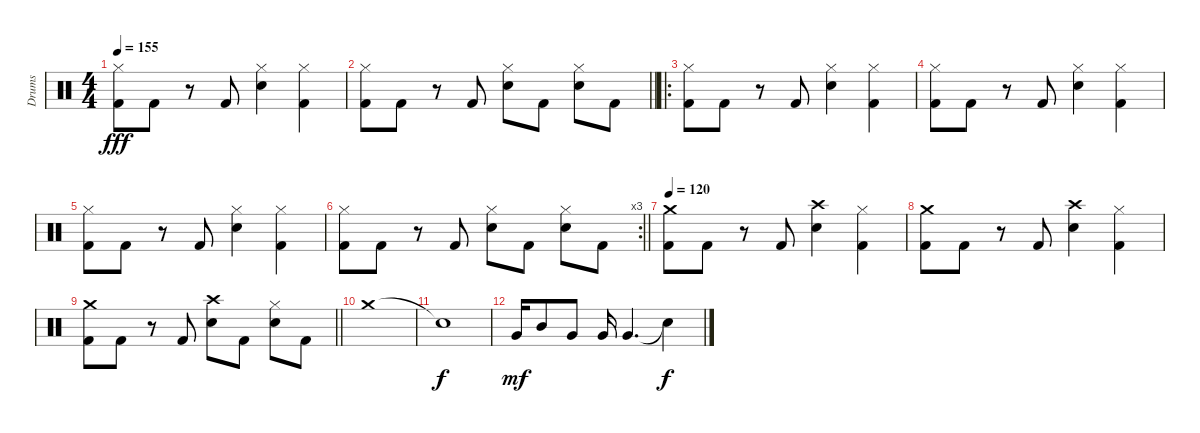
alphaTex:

\track ("Drums" "Drums") {instrument percussion}
\staff {score}
\articulation defaults
\ts (4 4)
\tempo 155
\clef neutral
\ks c
("Hi-Hat (closed)" "Kick (hit) 2").8{dy fff} "Kick (hit) 2".8 r.8 "Kick (hit) 2".8 ("Hi-Hat (closed)" "Electric Snare (hit)").4 ("Hi-Hat (closed)" "Kick (hit) 2").4 |
\barLineRight lightlight
("Hi-Hat (closed)" "Kick (hit) 2").8 "Kick (hit) 2".8 r.8 "Kick (hit) 2".8 ("Hi-Hat (closed)" "Electric Snare (hit)").8 "Kick (hit) 2".8 ("Hi-Hat (closed)" "Electric Snare (hit)").8 "Kick (hit) 2".8 |
\ro
\section ("" "")
("Hi-Hat (closed)" "Kick (hit) 2").8 "Kick (hit) 2".8 r.8 "Kick (hit) 2".8 ("Hi-Hat (closed)" "Electric Snare (hit)").4 ("Hi-Hat (closed)" "Kick (hit) 2").4 |
("Hi-Hat (closed)" "Kick (hit) 2").8 "Kick (hit) 2".8 r.8 "Kick (hit) 2".8 ("Hi-Hat (closed)" "Electric Snare (hit)").4 ("Hi-Hat (closed)" "Kick (hit) 2").4 |
("Hi-Hat (closed)" "Kick (hit) 2").8 "Kick (hit) 2".8 r.8 "Kick (hit) 2".8 ("Hi-Hat (closed)" "Electric Snare (hit)").4 ("Hi-Hat (closed)" "Kick (hit) 2").4 |
\rc 3
\barLineRight lightlight
("Hi-Hat (closed)" "Kick (hit) 2").8 "Kick (hit) 2".8 r.8 "Kick (hit) 2".8 ("Hi-Hat (closed)" "Electric Snare (hit)").8 "Kick (hit) 2".8 ("Hi-Hat (closed)" "Electric Snare (hit)").8 "Kick (hit) 2".8 |
\tempo 120
("Crash medium (hit)" "Kick (hit) 2").8 "Kick (hit) 2".8 r.8 "Kick (hit) 2".8 ("Crash high (hit)" "Electric Snare (hit)").4 ("Hi-Hat (closed)" "Kick (hit) 2").4 |
("Crash medium (hit)" "Kick (hit) 2").8 "Kick (hit) 2".8 r.8 "Kick (hit) 2".8 ("Crash high (hit)" "Electric Snare (hit)").4 ("Hi-Hat (closed)" "Kick (hit) 2").4 |
\barLineRight lightlight
("Crash medium (hit)" "Kick (hit) 2").8 "Kick (hit) 2".8 r.8 "Kick (hit) 2".8 ("Crash high (hit)" "Electric Snare (hit)").8 "Kick (hit) 2".8 ("Hi-Hat (closed)" "Electric Snare (hit)").8 "Kick (hit) 2".8 |
"Crash medium (hit)".1 |
"Snare (hit)"{t}.1{dy f} |
"Very Low Tom (hit)".16{dy mf} "Mid Tom (hit)".8 "Very Low Tom (hit)".8 "Very Low Tom (hit)".16 "Very Low Tom (hit)".4{d} "Snare (hit)"{t}.4{dy f}
